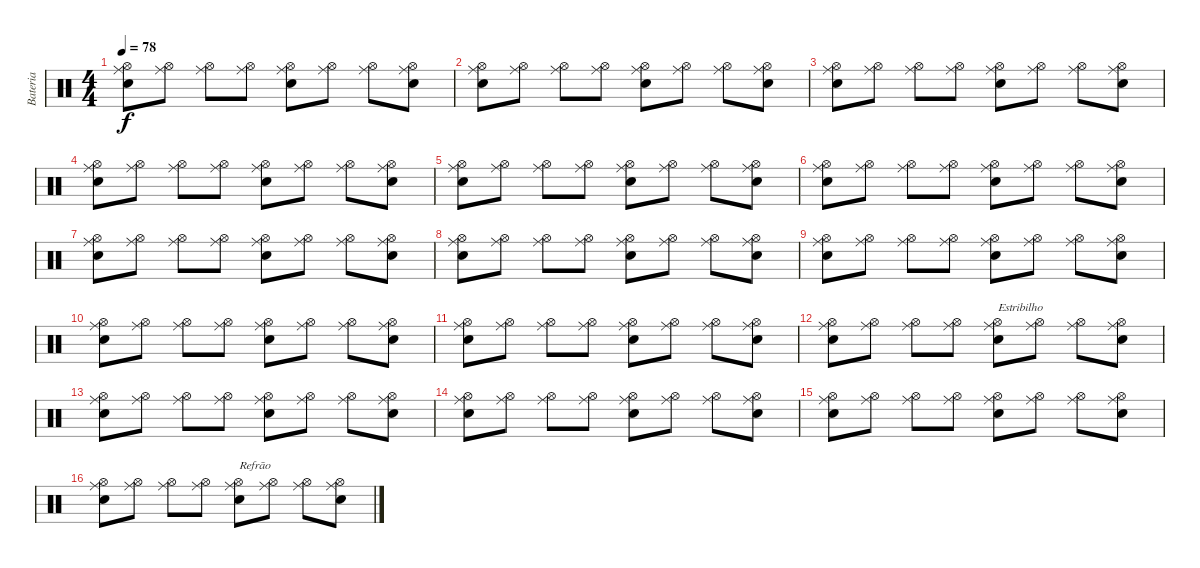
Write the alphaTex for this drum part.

\track ("Bateria" "Bateria") {instrument percussion}
\staff {score}
\articulation defaults
\ts (4 4)
\tempo 78
\clef neutral
\ks c
("Hi-Hat (open)" "Ride (middle)" "Snare (hit) 2").8{dy f} ("Hi-Hat (open)" "Ride (middle)").8 ("Hi-Hat (open)" "Ride (middle)").8 ("Hi-Hat (open)" "Ride (middle)").8 ("Hi-Hat (open)" "Ride (middle)" "Snare (hit) 2").8 ("Hi-Hat (open)" "Ride (middle)").8 ("Hi-Hat (open)" "Ride (middle)").8 ("Hi-Hat (open)" "Ride (middle)" "Snare (hit) 2").8 |
("Hi-Hat (open)" "Ride (middle)" "Snare (hit) 2").8 ("Hi-Hat (open)" "Ride (middle)").8 ("Hi-Hat (open)" "Ride (middle)").8 ("Hi-Hat (open)" "Ride (middle)").8 ("Hi-Hat (open)" "Ride (middle)" "Snare (hit) 2").8 ("Hi-Hat (open)" "Ride (middle)").8 ("Hi-Hat (open)" "Ride (middle)").8 ("Hi-Hat (open)" "Ride (middle)" "Snare (hit) 2").8 |
("Hi-Hat (open)" "Ride (middle)" "Snare (hit) 2").8 ("Hi-Hat (open)" "Ride (middle)").8 ("Hi-Hat (open)" "Ride (middle)").8 ("Hi-Hat (open)" "Ride (middle)").8 ("Hi-Hat (open)" "Ride (middle)" "Snare (hit) 2").8 ("Hi-Hat (open)" "Ride (middle)").8 ("Hi-Hat (open)" "Ride (middle)").8 ("Hi-Hat (open)" "Ride (middle)" "Snare (hit) 2").8 |
("Hi-Hat (open)" "Ride (middle)" "Snare (hit) 2").8 ("Hi-Hat (open)" "Ride (middle)").8 ("Hi-Hat (open)" "Ride (middle)").8 ("Hi-Hat (open)" "Ride (middle)").8 ("Hi-Hat (open)" "Ride (middle)" "Snare (hit) 2").8 ("Hi-Hat (open)" "Ride (middle)").8 ("Hi-Hat (open)" "Ride (middle)").8 ("Hi-Hat (open)" "Ride (middle)" "Snare (hit) 2").8 |
("Hi-Hat (open)" "Ride (middle)" "Snare (hit) 2").8 ("Hi-Hat (open)" "Ride (middle)").8 ("Hi-Hat (open)" "Ride (middle)").8 ("Hi-Hat (open)" "Ride (middle)").8 ("Hi-Hat (open)" "Ride (middle)" "Snare (hit) 2").8 ("Hi-Hat (open)" "Ride (middle)").8 ("Hi-Hat (open)" "Ride (middle)").8 ("Hi-Hat (open)" "Ride (middle)" "Snare (hit) 2").8 |
("Hi-Hat (open)" "Ride (middle)" "Snare (hit) 2").8 ("Hi-Hat (open)" "Ride (middle)").8 ("Hi-Hat (open)" "Ride (middle)").8 ("Hi-Hat (open)" "Ride (middle)").8 ("Hi-Hat (open)" "Ride (middle)" "Snare (hit) 2").8 ("Hi-Hat (open)" "Ride (middle)").8 ("Hi-Hat (open)" "Ride (middle)").8 ("Hi-Hat (open)" "Ride (middle)" "Snare (hit) 2").8 |
("Hi-Hat (open)" "Ride (middle)" "Snare (hit) 2").8 ("Hi-Hat (open)" "Ride (middle)").8 ("Hi-Hat (open)" "Ride (middle)").8 ("Hi-Hat (open)" "Ride (middle)").8 ("Hi-Hat (open)" "Ride (middle)" "Snare (hit) 2").8 ("Hi-Hat (open)" "Ride (middle)").8 ("Hi-Hat (open)" "Ride (middle)").8 ("Hi-Hat (open)" "Ride (middle)" "Snare (hit) 2").8 |
("Hi-Hat (open)" "Ride (middle)" "Snare (hit) 2").8 ("Hi-Hat (open)" "Ride (middle)").8 ("Hi-Hat (open)" "Ride (middle)").8 ("Hi-Hat (open)" "Ride (middle)").8 ("Hi-Hat (open)" "Ride (middle)" "Snare (hit) 2").8 ("Hi-Hat (open)" "Ride (middle)").8 ("Hi-Hat (open)" "Ride (middle)").8 ("Hi-Hat (open)" "Ride (middle)" "Snare (hit) 2").8 |
("Hi-Hat (open)" "Ride (middle)" "Snare (hit) 2").8 ("Hi-Hat (open)" "Ride (middle)").8 ("Hi-Hat (open)" "Ride (middle)").8 ("Hi-Hat (open)" "Ride (middle)").8 ("Hi-Hat (open)" "Ride (middle)" "Snare (hit) 2").8 ("Hi-Hat (open)" "Ride (middle)").8 ("Hi-Hat (open)" "Ride (middle)").8 ("Hi-Hat (open)" "Ride (middle)" "Snare (hit) 2").8 |
("Hi-Hat (open)" "Ride (middle)" "Snare (hit) 2").8 ("Hi-Hat (open)" "Ride (middle)").8 ("Hi-Hat (open)" "Ride (middle)").8 ("Hi-Hat (open)" "Ride (middle)").8 ("Hi-Hat (open)" "Ride (middle)" "Snare (hit) 2").8 ("Hi-Hat (open)" "Ride (middle)").8 ("Hi-Hat (open)" "Ride (middle)").8 ("Hi-Hat (open)" "Ride (middle)" "Snare (hit) 2").8 |
("Hi-Hat (open)" "Ride (middle)" "Snare (hit) 2").8 ("Hi-Hat (open)" "Ride (middle)").8 ("Hi-Hat (open)" "Ride (middle)").8 ("Hi-Hat (open)" "Ride (middle)").8 ("Hi-Hat (open)" "Ride (middle)" "Snare (hit) 2").8 ("Hi-Hat (open)" "Ride (middle)").8 ("Hi-Hat (open)" "Ride (middle)").8 ("Hi-Hat (open)" "Ride (middle)" "Snare (hit) 2").8 |
("Hi-Hat (open)" "Ride (middle)" "Snare (hit) 2").8 ("Hi-Hat (open)" "Ride (middle)").8 ("Hi-Hat (open)" "Ride (middle)").8 ("Hi-Hat (open)" "Ride (middle)").8 ("Hi-Hat (open)" "Ride (middle)" "Snare (hit) 2").8{txt "Estribilho"} ("Hi-Hat (open)" "Ride (middle)").8 ("Hi-Hat (open)" "Ride (middle)").8 ("Hi-Hat (open)" "Ride (middle)" "Snare (hit) 2").8 |
("Hi-Hat (open)" "Ride (middle)" "Snare (hit) 2").8 ("Hi-Hat (open)" "Ride (middle)").8 ("Hi-Hat (open)" "Ride (middle)").8 ("Hi-Hat (open)" "Ride (middle)").8 ("Hi-Hat (open)" "Ride (middle)" "Snare (hit) 2").8 ("Hi-Hat (open)" "Ride (middle)").8 ("Hi-Hat (open)" "Ride (middle)").8 ("Hi-Hat (open)" "Ride (middle)" "Snare (hit) 2").8 |
("Hi-Hat (open)" "Ride (middle)" "Snare (hit) 2").8 ("Hi-Hat (open)" "Ride (middle)").8 ("Hi-Hat (open)" "Ride (middle)").8 ("Hi-Hat (open)" "Ride (middle)").8 ("Hi-Hat (open)" "Ride (middle)" "Snare (hit) 2").8 ("Hi-Hat (open)" "Ride (middle)").8 ("Hi-Hat (open)" "Ride (middle)").8 ("Hi-Hat (open)" "Ride (middle)" "Snare (hit) 2").8 |
("Hi-Hat (open)" "Ride (middle)" "Snare (hit) 2").8 ("Hi-Hat (open)" "Ride (middle)").8 ("Hi-Hat (open)" "Ride (middle)").8 ("Hi-Hat (open)" "Ride (middle)").8 ("Hi-Hat (open)" "Ride (middle)" "Snare (hit) 2").8 ("Hi-Hat (open)" "Ride (middle)").8 ("Hi-Hat (open)" "Ride (middle)").8 ("Hi-Hat (open)" "Ride (middle)" "Snare (hit) 2").8 |
("Hi-Hat (open)" "Ride (middle)" "Snare (hit) 2").8 ("Hi-Hat (open)" "Ride (middle)").8 ("Hi-Hat (open)" "Ride (middle)").8 ("Hi-Hat (open)" "Ride (middle)").8 ("Hi-Hat (open)" "Ride (middle)" "Snare (hit) 2").8{txt "Refrão"} ("Hi-Hat (open)" "Ride (middle)").8 ("Hi-Hat (open)" "Ride (middle)").8 ("Hi-Hat (open)" "Ride (middle)" "Snare (hit) 2").8
